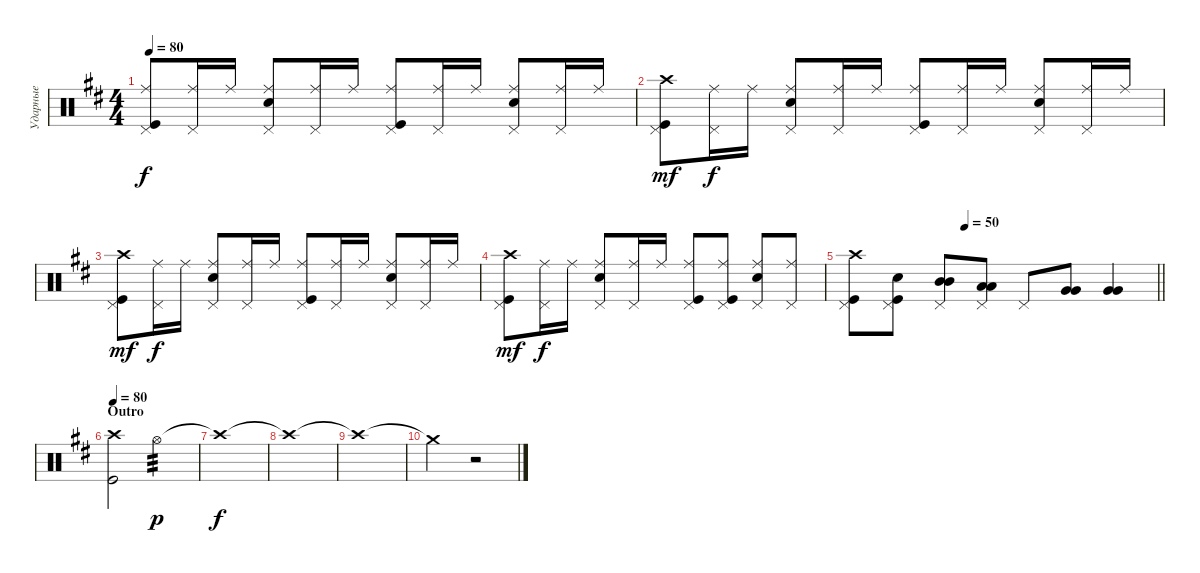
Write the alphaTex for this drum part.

\track ("Ударные" "Ударные") {instrument percussion}
\staff {score}
\articulation defaults
\ts (4 4)
\tempo 80
\clef neutral
\ks bminor
("Ride (middle)" "Kick (hit)" "Pedal Hi-Hat (hit)").8{dy f} ("Ride (middle)" "Pedal Hi-Hat (hit)").16 "Ride (middle)".16 ("Snare (hit) 2" "Ride (middle)" "Pedal Hi-Hat (hit)").8 ("Ride (middle)" "Pedal Hi-Hat (hit)").16 "Ride (middle)".16 ("Kick (hit)" "Ride (middle)" "Pedal Hi-Hat (hit)").8 ("Ride (middle)" "Pedal Hi-Hat (hit)").16 "Ride (middle)".16 ("Snare (hit) 2" "Ride (middle)" "Pedal Hi-Hat (hit)").8 ("Ride (middle)" "Pedal Hi-Hat (hit)").16 "Ride (middle)".16 |
("Crash high (hit)" "Kick (hit)" "Pedal Hi-Hat (hit)").8{dy mf} ("Ride (middle)" "Pedal Hi-Hat (hit)").16{dy f} "Ride (middle)".16 ("Snare (hit) 2" "Ride (middle)" "Pedal Hi-Hat (hit)").8 ("Ride (middle)" "Pedal Hi-Hat (hit)").16 "Ride (middle)".16 ("Kick (hit)" "Ride (middle)" "Pedal Hi-Hat (hit)").8 ("Ride (middle)" "Pedal Hi-Hat (hit)").16 "Ride (middle)".16 ("Snare (hit) 2" "Ride (middle)" "Pedal Hi-Hat (hit)").8 ("Ride (middle)" "Pedal Hi-Hat (hit)").16 "Ride (middle)".16 |
("Crash high (hit)" "Kick (hit)" "Pedal Hi-Hat (hit)").8{dy mf} ("Ride (middle)" "Pedal Hi-Hat (hit)").16{dy f} "Ride (middle)".16 ("Snare (hit) 2" "Ride (middle)" "Pedal Hi-Hat (hit)").8 ("Ride (middle)" "Pedal Hi-Hat (hit)").16 "Ride (middle)".16 ("Kick (hit)" "Ride (middle)" "Pedal Hi-Hat (hit)").8 ("Ride (middle)" "Pedal Hi-Hat (hit)").16 "Ride (middle)".16 ("Snare (hit) 2" "Ride (middle)" "Pedal Hi-Hat (hit)").8 ("Ride (middle)" "Pedal Hi-Hat (hit)").16 "Ride (middle)".16 |
("Crash high (hit)" "Kick (hit)" "Pedal Hi-Hat (hit)").8{dy mf} ("Ride (middle)" "Pedal Hi-Hat (hit)").16{dy f} "Ride (middle)".16 ("Snare (hit) 2" "Ride (middle)" "Pedal Hi-Hat (hit)").8 ("Ride (middle)" "Pedal Hi-Hat (hit)").16 "Ride (middle)".16 ("Kick (hit)" "Ride (middle)" "Pedal Hi-Hat (hit)").8 ("Ride (middle)" "Pedal Hi-Hat (hit)" "Kick (hit)").8 ("Snare (hit) 2" "Ride (middle)" "Pedal Hi-Hat (hit)").8 ("Ride (middle)" "Pedal Hi-Hat (hit)").8 |
\tempo (50 0.375)
\barLineRight lightlight
("Kick (hit)" "Crash high (hit)" "Pedal Hi-Hat (hit)").8 ("Snare (hit) 2" "Kick (hit)" "Pedal Hi-Hat (hit)").8 ("Mid Tom (hit)" "Mid Tom (hit)" "Pedal Hi-Hat (hit)").8{bd 240} ("Low Tom (hit)" "Low Tom (hit)" "Pedal Hi-Hat (hit)").8{bd 240} "Pedal Hi-Hat (hit)".8 ("Very Low Tom (hit)" "Very Low Tom (hit)").8{bd 240} ("Very Low Tom (hit)" "Very Low Tom (hit)").4{bd 240} |
\section ("" "Outro")
\tempo 80
("Kick (hit)" "Crash high (hit)").2 "Hi-Hat (open)".2{tp 3 dy p} |
"Crash high (hit)"{t}.1{dy f} |
"Crash high (hit)"{t}.1 |
"Crash high (hit)"{t}.1 |
"Crash medium (hit)"{t}.2 r.2
